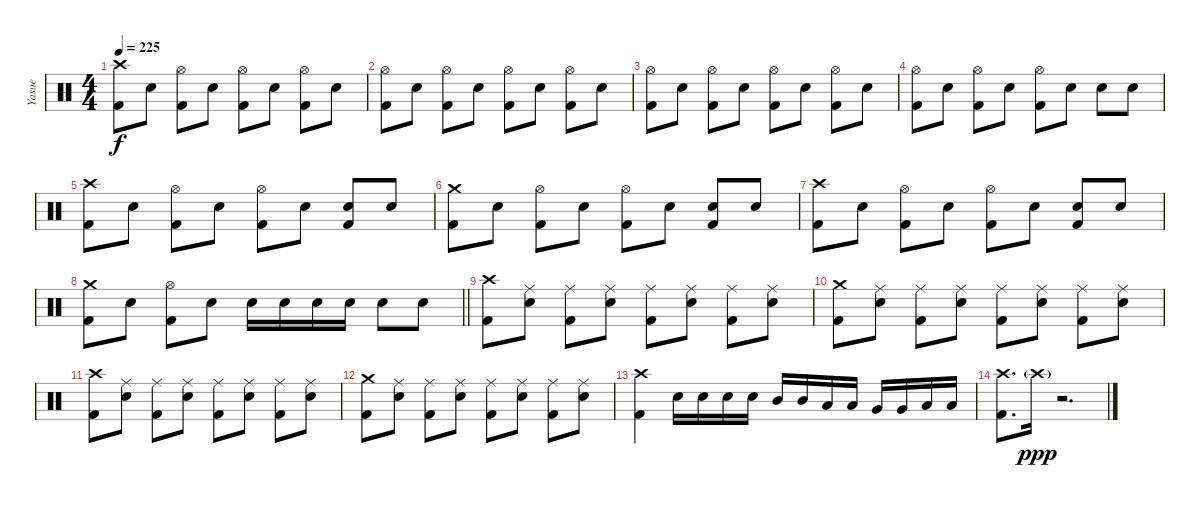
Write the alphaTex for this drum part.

\track ("Yasue" "Yasue") {instrument percussion}
\staff {score}
\articulation defaults
\ts (4 4)
\section ("" "")
\tempo 225
\clef neutral
\ks c
("Crash high (hit)" "Kick (hit) 2").8{dy f} "Electric Snare (hit)".8 ("Hi-Hat (open)" "Kick (hit) 2").8 "Electric Snare (hit)".8 ("Hi-Hat (open)" "Kick (hit) 2").8 "Electric Snare (hit)".8 ("Hi-Hat (open)" "Kick (hit) 2").8 "Electric Snare (hit)".8 |
("Hi-Hat (open)" "Kick (hit) 2").8 "Electric Snare (hit)".8 ("Hi-Hat (open)" "Kick (hit) 2").8 "Electric Snare (hit)".8 ("Hi-Hat (open)" "Kick (hit) 2").8 "Electric Snare (hit)".8 ("Hi-Hat (open)" "Kick (hit) 2").8 "Electric Snare (hit)".8 |
("Hi-Hat (open)" "Kick (hit) 2").8 "Electric Snare (hit)".8 ("Hi-Hat (open)" "Kick (hit) 2").8 "Electric Snare (hit)".8 ("Hi-Hat (open)" "Kick (hit) 2").8 "Electric Snare (hit)".8 ("Hi-Hat (open)" "Kick (hit) 2").8 "Electric Snare (hit)".8 |
("Hi-Hat (open)" "Kick (hit) 2").8 "Electric Snare (hit)".8 ("Hi-Hat (open)" "Kick (hit) 2").8 "Electric Snare (hit)".8 ("Hi-Hat (open)" "Kick (hit) 2").8 "Electric Snare (hit)".8 "Electric Snare (hit)".8 "Electric Snare (hit)".8 |
("Crash high (hit)" "Kick (hit) 2").8 "Electric Snare (hit)".8 ("Hi-Hat (open)" "Kick (hit) 2").8 "Electric Snare (hit)".8 ("Hi-Hat (open)" "Kick (hit) 2").8 "Electric Snare (hit)".8 ("Electric Snare (hit)" "Kick (hit) 2").8 "Electric Snare (hit)".8 |
("Crash medium (hit)" "Kick (hit) 2").8 "Electric Snare (hit)".8 ("Hi-Hat (open)" "Kick (hit) 2").8 "Electric Snare (hit)".8 ("Hi-Hat (open)" "Kick (hit) 2").8 "Electric Snare (hit)".8 ("Electric Snare (hit)" "Kick (hit) 2").8 "Electric Snare (hit)".8 |
("Crash high (hit)" "Kick (hit) 2").8 "Electric Snare (hit)".8 ("Hi-Hat (open)" "Kick (hit) 2").8 "Electric Snare (hit)".8 ("Hi-Hat (open)" "Kick (hit) 2").8 "Electric Snare (hit)".8 ("Electric Snare (hit)" "Kick (hit) 2").8 "Electric Snare (hit)".8 |
\barLineRight lightlight
("Crash medium (hit)" "Kick (hit) 2").8 "Electric Snare (hit)".8 ("Hi-Hat (open)" "Kick (hit) 2").8 "Electric Snare (hit)".8 "Electric Snare (hit)".16 "Electric Snare (hit)".16 "Electric Snare (hit)".16 "Electric Snare (hit)".16 "Electric Snare (hit)".8 "Electric Snare (hit)".8 |
\section ("" "")
("Crash high (hit)" "Kick (hit) 2").8 ("Ride (middle)" "Electric Snare (hit)").8 ("Ride (middle)" "Kick (hit) 2").8 ("Ride (middle)" "Electric Snare (hit)").8 ("Ride (middle)" "Kick (hit) 2").8 ("Ride (middle)" "Electric Snare (hit)").8 ("Ride (middle)" "Kick (hit) 2").8 ("Ride (middle)" "Electric Snare (hit)").8 |
("Crash medium (hit)" "Kick (hit) 2").8 ("Ride (middle)" "Electric Snare (hit)").8 ("Ride (middle)" "Kick (hit) 2").8 ("Ride (middle)" "Electric Snare (hit)").8 ("Ride (middle)" "Kick (hit) 2").8 ("Ride (middle)" "Electric Snare (hit)").8 ("Ride (middle)" "Kick (hit) 2").8 ("Ride (middle)" "Electric Snare (hit)").8 |
("Crash high (hit)" "Kick (hit) 2").8 ("Ride (middle)" "Electric Snare (hit)").8 ("Ride (middle)" "Kick (hit) 2").8 ("Ride (middle)" "Electric Snare (hit)").8 ("Ride (middle)" "Kick (hit) 2").8 ("Ride (middle)" "Electric Snare (hit)").8 ("Ride (middle)" "Kick (hit) 2").8 ("Ride (middle)" "Electric Snare (hit)").8 |
("Crash medium (hit)" "Kick (hit) 2").8 ("Ride (middle)" "Electric Snare (hit)").8 ("Ride (middle)" "Kick (hit) 2").8 ("Ride (middle)" "Electric Snare (hit)").8 ("Ride (middle)" "Kick (hit) 2").8 ("Ride (middle)" "Electric Snare (hit)").8 ("Ride (middle)" "Kick (hit) 2").8 ("Ride (middle)" "Electric Snare (hit)").8 |
("Crash high (hit)" "Kick (hit) 2").4 "Electric Snare (hit)".16 "Electric Snare (hit)".16 "Electric Snare (hit)".16 "Electric Snare (hit)".16 "Mid Tom (hit)".16 "Mid Tom (hit)".16 "Low Tom (hit)".16 "Low Tom (hit)".16 "Very Low Tom (hit)".16 "Very Low Tom (hit)".16 "Low Floor Tom (hit)".16 "Low Floor Tom (hit)".16 |
("Crash high (hit)" "Kick (hit) 2").8{d} "Crash high (hit)"{g}.16{dy ppp} r.2{d}
